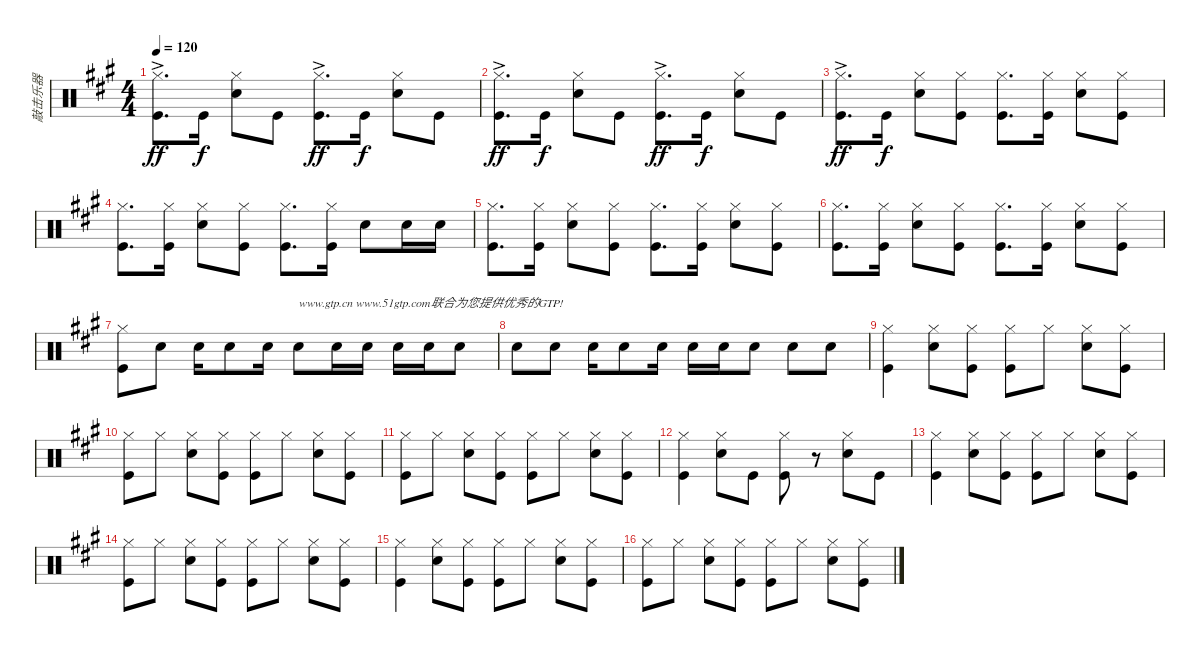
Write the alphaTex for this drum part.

\track ("敲击乐器" "敲击乐器") {instrument percussion}
\staff {score}
\articulation defaults
\ts (4 4)
\tempo 120
\clef neutral
\ks a
("Hi-Hat (closed)"{ac} "Kick (hit)").8{d dy ff} "Kick (hit)".16{dy f} ("Hi-Hat (closed)" "Snare (hit) 2").8 "Kick (hit)".8 ("Hi-Hat (closed)"{ac} "Kick (hit)").8{d dy ff} "Kick (hit)".16{dy f} ("Hi-Hat (closed)" "Snare (hit) 2").8 "Kick (hit)".8 |
("Hi-Hat (closed)"{ac} "Kick (hit)").8{d dy ff} "Kick (hit)".16{dy f} ("Hi-Hat (closed)" "Snare (hit) 2").8 "Kick (hit)".8 ("Hi-Hat (closed)"{ac} "Kick (hit)").8{d dy ff} "Kick (hit)".16{dy f} ("Hi-Hat (closed)" "Snare (hit) 2").8 "Kick (hit)".8 |
("Hi-Hat (closed)"{ac} "Kick (hit)").8{d dy ff} "Kick (hit)".16{dy f} ("Hi-Hat (closed)" "Snare (hit) 2").8 ("Hi-Hat (closed)" "Kick (hit)").8 ("Hi-Hat (closed)" "Kick (hit)").8{d} ("Hi-Hat (closed)" "Kick (hit)").16 ("Hi-Hat (closed)" "Snare (hit) 2").8 ("Hi-Hat (closed)" "Kick (hit)").8 |
("Hi-Hat (closed)" "Kick (hit)").8{d} ("Hi-Hat (closed)" "Kick (hit)").16 ("Hi-Hat (closed)" "Snare (hit) 2").8 ("Hi-Hat (closed)" "Kick (hit)").8 ("Hi-Hat (closed)" "Kick (hit)").8{d} ("Hi-Hat (closed)" "Kick (hit)").16 "Snare (hit) 2".8 "Snare (hit) 2".16 "Snare (hit) 2".16 |
("Hi-Hat (closed)" "Kick (hit)").8{d} ("Hi-Hat (closed)" "Kick (hit)").16 ("Hi-Hat (closed)" "Snare (hit) 2").8 ("Hi-Hat (closed)" "Kick (hit)").8 ("Hi-Hat (closed)" "Kick (hit)").8{d} ("Hi-Hat (closed)" "Kick (hit)").16 ("Hi-Hat (closed)" "Snare (hit) 2").8 ("Hi-Hat (closed)" "Kick (hit)").8 |
("Hi-Hat (closed)" "Kick (hit)").8{d} ("Hi-Hat (closed)" "Kick (hit)").16 ("Hi-Hat (closed)" "Snare (hit) 2").8 ("Hi-Hat (closed)" "Kick (hit)").8 ("Hi-Hat (closed)" "Kick (hit)").8{d} ("Hi-Hat (closed)" "Kick (hit)").16 ("Hi-Hat (closed)" "Snare (hit) 2").8 ("Hi-Hat (closed)" "Kick (hit)").8 |
("Hi-Hat (closed)" "Kick (hit)").8 "Snare (hit) 2".8 "Snare (hit) 2".16 "Snare (hit) 2".8 "Snare (hit) 2".16 "Snare (hit) 2".8{txt "www.gtp.cn www.51gtp.com联合为您提供优秀的GTP!"} "Snare (hit) 2".16 "Snare (hit) 2".16 "Snare (hit) 2".16 "Snare (hit) 2".16 "Snare (hit) 2".8 |
"Snare (hit) 2".8 "Snare (hit) 2".8 "Snare (hit) 2".16 "Snare (hit) 2".8 "Snare (hit) 2".16 "Snare (hit) 2".16 "Snare (hit) 2".16 "Snare (hit) 2".8 "Snare (hit) 2".8 "Snare (hit) 2".8 |
("Hi-Hat (closed)" "Kick (hit)").4 ("Hi-Hat (closed)" "Snare (hit) 2").8 ("Hi-Hat (closed)" "Kick (hit)").8 ("Hi-Hat (closed)" "Kick (hit)").8 "Hi-Hat (closed)".8 ("Hi-Hat (closed)" "Snare (hit) 2").8 ("Hi-Hat (closed)" "Kick (hit)").8 |
("Hi-Hat (closed)" "Kick (hit)").8 "Hi-Hat (closed)".8 ("Hi-Hat (closed)" "Snare (hit) 2").8 ("Hi-Hat (closed)" "Kick (hit)").8 ("Hi-Hat (closed)" "Kick (hit)").8 "Hi-Hat (closed)".8 ("Hi-Hat (closed)" "Snare (hit) 2").8 ("Hi-Hat (closed)" "Kick (hit)").8 |
("Hi-Hat (closed)" "Kick (hit)").8 "Hi-Hat (closed)".8 ("Hi-Hat (closed)" "Snare (hit) 2").8 ("Hi-Hat (closed)" "Kick (hit)").8 ("Hi-Hat (closed)" "Kick (hit)").8 "Hi-Hat (closed)".8 ("Hi-Hat (closed)" "Snare (hit) 2").8 ("Hi-Hat (closed)" "Kick (hit)").8 |
("Hi-Hat (closed)" "Kick (hit)").4 ("Hi-Hat (closed)" "Snare (hit) 2").8 "Kick (hit)".8 ("Hi-Hat (closed)" "Kick (hit)").8 r.8 ("Hi-Hat (closed)" "Snare (hit) 2").8 "Kick (hit)".8 |
("Hi-Hat (closed)" "Kick (hit)").4 ("Hi-Hat (closed)" "Snare (hit) 2").8 ("Hi-Hat (closed)" "Kick (hit)").8 ("Hi-Hat (closed)" "Kick (hit)").8 "Hi-Hat (closed)".8 ("Hi-Hat (closed)" "Snare (hit) 2").8 ("Hi-Hat (closed)" "Kick (hit)").8 |
("Hi-Hat (closed)" "Kick (hit)").8 "Hi-Hat (closed)".8 ("Hi-Hat (closed)" "Snare (hit) 2").8 ("Hi-Hat (closed)" "Kick (hit)").8 ("Hi-Hat (closed)" "Kick (hit)").8 "Hi-Hat (closed)".8 ("Hi-Hat (closed)" "Snare (hit) 2").8 ("Hi-Hat (closed)" "Kick (hit)").8 |
("Hi-Hat (closed)" "Kick (hit)").4 ("Hi-Hat (closed)" "Snare (hit) 2").8 ("Hi-Hat (closed)" "Kick (hit)").8 ("Hi-Hat (closed)" "Kick (hit)").8 "Hi-Hat (closed)".8 ("Hi-Hat (closed)" "Snare (hit) 2").8 ("Hi-Hat (closed)" "Kick (hit)").8 |
("Hi-Hat (closed)" "Kick (hit)").8 "Hi-Hat (closed)".8 ("Hi-Hat (closed)" "Snare (hit) 2").8 ("Hi-Hat (closed)" "Kick (hit)").8 ("Hi-Hat (closed)" "Kick (hit)").8 "Hi-Hat (closed)".8 ("Hi-Hat (closed)" "Snare (hit) 2").8 ("Hi-Hat (closed)" "Kick (hit)").8
